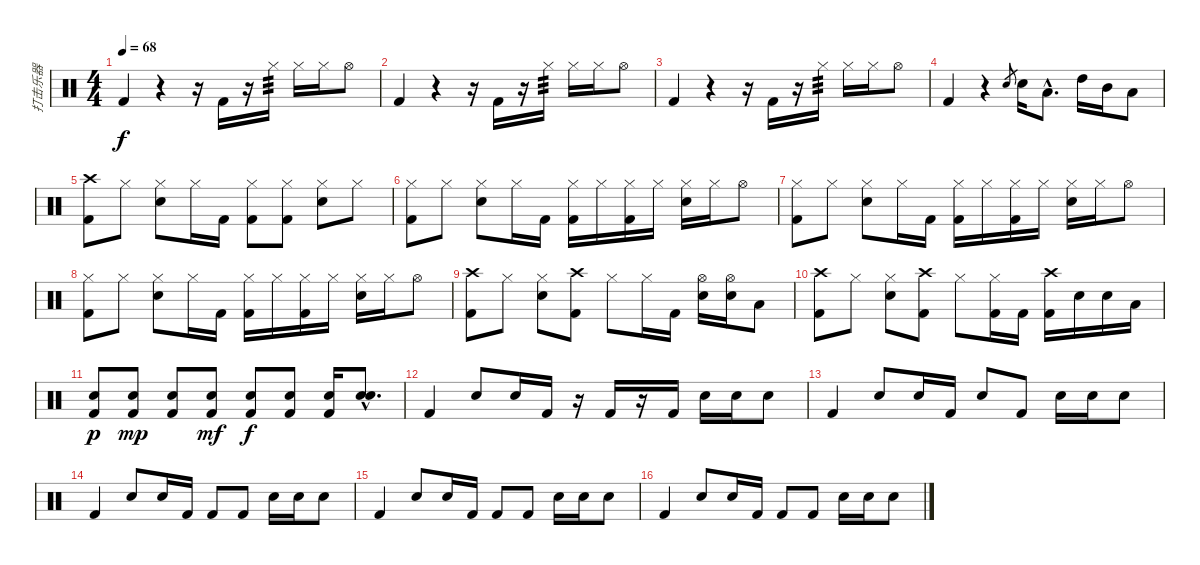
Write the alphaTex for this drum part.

\track ("打击乐器" "打击乐器") {instrument percussion}
\staff {score}
\articulation defaults
\ts (4 4)
\tempo 68
\clef neutral
\ks c "Kick (hit) 2".4{dy f}
r.4 r.16 "Kick (hit) 2".16 r.16 "Hi-Hat (closed)".16{tp 3} "Hi-Hat (closed)".16 "Hi-Hat (closed)".16 "Hi-Hat (open)".8 |
"Kick (hit) 2".4 r.4 r.16 "Kick (hit) 2".16 r.16 "Hi-Hat (closed)".16{tp 3} "Hi-Hat (closed)".16 "Hi-Hat (closed)".16 "Hi-Hat (open)".8 |
"Kick (hit) 2".4 r.4 r.16 "Kick (hit) 2".16 r.16 "Hi-Hat (closed)".16{tp 3} "Hi-Hat (closed)".16 "Hi-Hat (closed)".16 "Hi-Hat (open)".8 |
"Kick (hit) 2".4 r.4 "Electric Snare (hit)".8{gr} "Electric Snare (hit)".16 "Low Tom (hit)"{hac}.8{d} "High Tom (hit)".16 "Mid Tom (hit)".16 "Low Tom (hit)".8 |
("Crash high (hit)" "Kick (hit) 2").8 "Hi-Hat (closed)".8 ("Hi-Hat (closed)" "Electric Snare (hit)").8 "Hi-Hat (closed)".16 "Kick (hit) 2".16 ("Hi-Hat (closed)" "Kick (hit) 2").8 ("Hi-Hat (closed)" "Kick (hit) 2").8 ("Hi-Hat (closed)" "Electric Snare (hit)").8 "Hi-Hat (closed)".8 |
("Hi-Hat (closed)" "Kick (hit) 2").8 "Hi-Hat (closed)".8 ("Hi-Hat (closed)" "Electric Snare (hit)").8 "Hi-Hat (closed)".16 "Kick (hit) 2".16 ("Hi-Hat (closed)" "Kick (hit) 2").16 "Hi-Hat (closed)".16 ("Hi-Hat (closed)" "Kick (hit) 2").16 "Hi-Hat (closed)".16 ("Hi-Hat (closed)" "Electric Snare (hit)").16 "Hi-Hat (closed)".16 "Hi-Hat (open)".8 |
("Hi-Hat (closed)" "Kick (hit) 2").8 "Hi-Hat (closed)".8 ("Hi-Hat (closed)" "Electric Snare (hit)").8 "Hi-Hat (closed)".16 "Kick (hit) 2".16 ("Hi-Hat (closed)" "Kick (hit) 2").16 "Hi-Hat (closed)".16 ("Hi-Hat (closed)" "Kick (hit) 2").16 "Hi-Hat (closed)".16 ("Hi-Hat (closed)" "Electric Snare (hit)").16 "Hi-Hat (closed)".16 "Hi-Hat (open)".8 |
("Hi-Hat (closed)" "Kick (hit) 2").8 "Hi-Hat (closed)".8 ("Hi-Hat (closed)" "Electric Snare (hit)").8 "Hi-Hat (closed)".16 "Kick (hit) 2".16 ("Hi-Hat (closed)" "Kick (hit) 2").16 "Hi-Hat (closed)".16 ("Hi-Hat (closed)" "Kick (hit) 2").16 "Hi-Hat (closed)".16 ("Hi-Hat (closed)" "Electric Snare (hit)").16 "Hi-Hat (closed)".16 "Hi-Hat (open)".8 |
("Crash high (hit)" "Kick (hit) 2").8 "Hi-Hat (closed)".8 ("Hi-Hat (closed)" "Electric Snare (hit)").8 ("Crash high (hit)" "Kick (hit) 2").8 "Hi-Hat (closed)".8 "Hi-Hat (closed)".16 "Kick (hit) 2".16 ("Hi-Hat (open)" "Electric Snare (hit)").16 ("Hi-Hat (open)" "Electric Snare (hit)").16 "Low Tom (hit)".8 |
("Crash high (hit)" "Kick (hit) 2").8 "Hi-Hat (closed)".8 ("Hi-Hat (closed)" "Electric Snare (hit)").8 ("Crash high (hit)" "Kick (hit) 2").8 "Hi-Hat (closed)".8 ("Hi-Hat (closed)" "Kick (hit) 2").16 "Kick (hit) 2".16 ("Crash high (hit)" "Kick (hit) 2").16 "Electric Snare (hit)".16 "Electric Snare (hit)".16 "Low Tom (hit)".16 |
("Electric Snare (hit)" "Kick (hit) 2").8{dy p} ("Electric Snare (hit)" "Kick (hit) 2").8{dy mp} ("Electric Snare (hit)" "Kick (hit) 2").8 ("Electric Snare (hit)" "Kick (hit) 2").8{dy mf} ("Electric Snare (hit)" "Kick (hit) 2").8{dy f} ("Electric Snare (hit)" "Kick (hit) 2").8 ("Electric Snare (hit)" "Kick (hit) 2").16 ("Electric Snare (hit)"{hac} "Electric Snare (hit)"{hac}).8{d} |
"Kick (hit) 2".4 "Electric Snare (hit)".8 "Electric Snare (hit)".16 "Kick (hit) 2".16 r.16 "Kick (hit) 2".16 r.16 "Kick (hit) 2".16 "Electric Snare (hit)".16 "Electric Snare (hit)".16 "Electric Snare (hit)".8 |
"Kick (hit) 2".4 "Electric Snare (hit)".8 "Electric Snare (hit)".16 "Kick (hit) 2".16 "Electric Snare (hit)".8 "Kick (hit) 2".8 "Electric Snare (hit)".16 "Electric Snare (hit)".16 "Electric Snare (hit)".8 |
"Kick (hit) 2".4 "Electric Snare (hit)".8 "Electric Snare (hit)".16 "Kick (hit) 2".16 "Kick (hit) 2".8 "Kick (hit) 2".8 "Electric Snare (hit)".16 "Electric Snare (hit)".16 "Electric Snare (hit)".8 |
"Kick (hit) 2".4 "Electric Snare (hit)".8 "Electric Snare (hit)".16 "Kick (hit) 2".16 "Kick (hit) 2".8 "Kick (hit) 2".8 "Electric Snare (hit)".16 "Electric Snare (hit)".16 "Electric Snare (hit)".8 |
"Kick (hit) 2".4 "Electric Snare (hit)".8 "Electric Snare (hit)".16 "Kick (hit) 2".16 "Kick (hit) 2".8 "Kick (hit) 2".8 "Electric Snare (hit)".16 "Electric Snare (hit)".16 "Electric Snare (hit)".8
